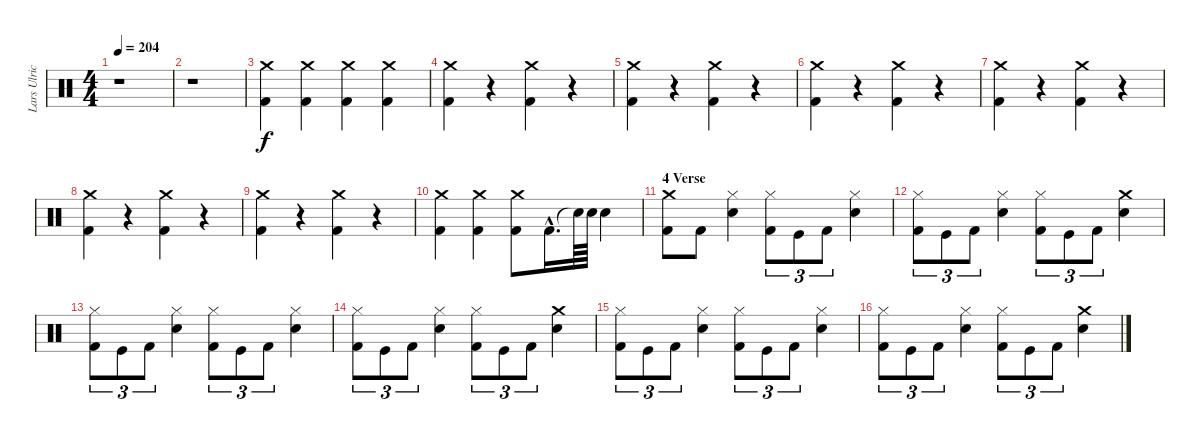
\track ("Lars Ulrich (Drums)" "Lars Ulric") {instrument percussion}
\staff {score}
\articulation defaults
\ts (4 4)
\tempo 204
\clef neutral
\ks c
r.1{dy f} |
r.1 |
("Kick (hit) 2" "Crash medium (hit)").4 ("Kick (hit) 2" "Crash medium (hit)").4 ("Kick (hit) 2" "Crash medium (hit)").4 ("Kick (hit) 2" "Crash medium (hit)").4 |
("Crash medium (hit)" "Kick (hit) 2").4 r.4 ("Crash medium (hit)" "Kick (hit) 2").4 r.4 |
("Kick (hit) 2" "Crash medium (hit)").4 r.4 ("Kick (hit) 2" "Crash medium (hit)").4 r.4 |
("Kick (hit) 2" "Crash medium (hit)").4 r.4 ("Kick (hit) 2" "Crash medium (hit)").4 r.4 |
("Kick (hit) 2" "Crash medium (hit)").4 r.4 ("Kick (hit) 2" "Crash medium (hit)").4 r.4 |
("Kick (hit) 2" "Crash medium (hit)").4 r.4 ("Kick (hit) 2" "Crash medium (hit)").4 r.4 |
("Kick (hit) 2" "Crash medium (hit)").4 r.4 ("Kick (hit) 2" "Crash medium (hit)").4 r.4 |
("Kick (hit) 2" "Crash medium (hit)").4 ("Kick (hit) 2" "Crash medium (hit)").4 ("Kick (hit) 2" "Crash medium (hit)").8 "Kick (hit) 2"{hac}.16{d} "Snare (hit)"{t}.64 "Snare (hit) 2".64 "Snare (hit) 2".4 |
\section ("" "4 Verse")
("Crash medium (hit)" "Kick (hit) 2").8 "Kick (hit) 2".8 ("Snare (hit) 2" "Hi-Hat (closed)").4 ("Hi-Hat (closed)" "Kick (hit) 2").8{tu (3 2)} "Kick (hit)".8{tu (3 2)} "Kick (hit) 2".8{tu (3 2)} ("Hi-Hat (closed)" "Snare (hit) 2").4 |
("Hi-Hat (closed)" "Kick (hit) 2").8{tu (3 2)} "Kick (hit)".8{tu (3 2)} "Kick (hit) 2".8{tu (3 2)} ("Snare (hit) 2" "Hi-Hat (closed)").4 ("Hi-Hat (closed)" "Kick (hit) 2").8{tu (3 2)} "Kick (hit)".8{tu (3 2)} "Kick (hit) 2".8{tu (3 2)} ("Crash medium (hit)" "Snare (hit) 2").4 |
("Hi-Hat (closed)" "Kick (hit) 2").8{tu (3 2)} "Kick (hit)".8{tu (3 2)} "Kick (hit) 2".8{tu (3 2)} ("Snare (hit) 2" "Hi-Hat (closed)").4 ("Hi-Hat (closed)" "Kick (hit) 2").8{tu (3 2)} "Kick (hit)".8{tu (3 2)} "Kick (hit) 2".8{tu (3 2)} ("Hi-Hat (closed)" "Snare (hit) 2").4 |
("Hi-Hat (closed)" "Kick (hit) 2").8{tu (3 2)} "Kick (hit)".8{tu (3 2)} "Kick (hit) 2".8{tu (3 2)} ("Snare (hit) 2" "Hi-Hat (closed)").4 ("Hi-Hat (closed)" "Kick (hit) 2").8{tu (3 2)} "Kick (hit)".8{tu (3 2)} "Kick (hit) 2".8{tu (3 2)} ("Crash medium (hit)" "Snare (hit) 2").4 |
("Hi-Hat (closed)" "Kick (hit) 2").8{tu (3 2)} "Kick (hit)".8{tu (3 2)} "Kick (hit) 2".8{tu (3 2)} ("Snare (hit) 2" "Hi-Hat (closed)").4 ("Hi-Hat (closed)" "Kick (hit) 2").8{tu (3 2)} "Kick (hit)".8{tu (3 2)} "Kick (hit) 2".8{tu (3 2)} ("Hi-Hat (closed)" "Snare (hit) 2").4 |
("Hi-Hat (closed)" "Kick (hit) 2").8{tu (3 2)} "Kick (hit)".8{tu (3 2)} "Kick (hit) 2".8{tu (3 2)} ("Snare (hit) 2" "Hi-Hat (closed)").4 ("Hi-Hat (closed)" "Kick (hit) 2").8{tu (3 2)} "Kick (hit)".8{tu (3 2)} "Kick (hit) 2".8{tu (3 2)} ("Crash medium (hit)" "Snare (hit) 2").4
